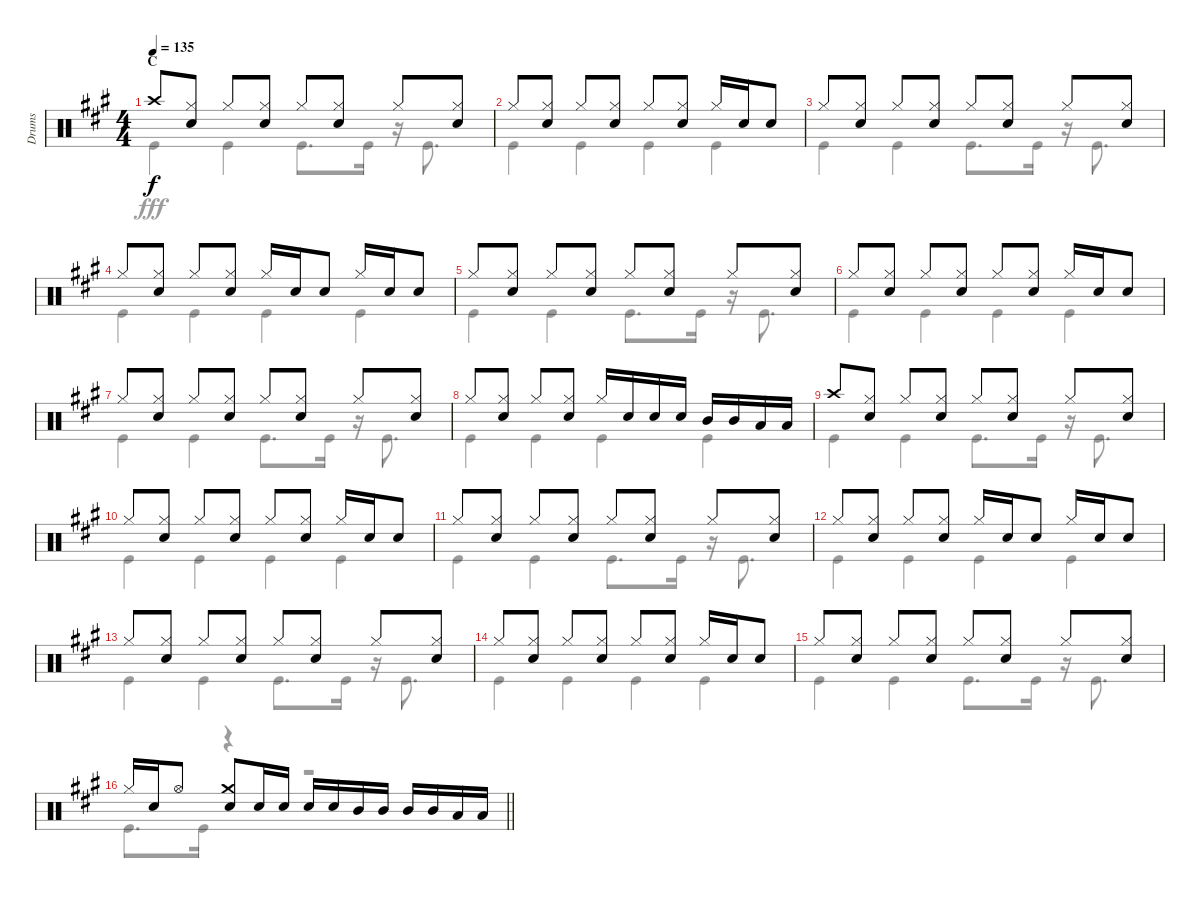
\track ("Drums" "Drums") {instrument percussion}
\staff {score}
\articulation defaults
\voice
\ts (4 4)
\section ("" "C")
\tempo 135
\clef neutral
\ks a "Crash high (hit)".8{dy f}
("Hi-Hat (closed)" "Snare (hit) 2").8 "Hi-Hat (closed)".8 ("Hi-Hat (closed)" "Snare (hit) 2").8 "Hi-Hat (closed)".8 ("Hi-Hat (closed)" "Snare (hit) 2").8 "Hi-Hat (closed)".8 ("Hi-Hat (closed)" "Snare (hit) 2").8 |
"Hi-Hat (closed)".8 ("Hi-Hat (closed)" "Snare (hit) 2").8 "Hi-Hat (closed)".8 ("Hi-Hat (closed)" "Snare (hit) 2").8 "Hi-Hat (closed)".8 ("Hi-Hat (closed)" "Snare (hit) 2").8 "Hi-Hat (closed)".16 "Snare (hit) 2".16 "Snare (hit) 2".8 |
"Hi-Hat (closed)".8 ("Hi-Hat (closed)" "Snare (hit) 2").8 "Hi-Hat (closed)".8 ("Hi-Hat (closed)" "Snare (hit) 2").8 "Hi-Hat (closed)".8 ("Hi-Hat (closed)" "Snare (hit) 2").8 "Hi-Hat (closed)".8 ("Hi-Hat (closed)" "Snare (hit) 2").8 |
"Hi-Hat (closed)".8 ("Hi-Hat (closed)" "Snare (hit) 2").8 "Hi-Hat (closed)".8 ("Hi-Hat (closed)" "Snare (hit) 2").8 "Hi-Hat (closed)".16 "Snare (hit) 2".16 "Snare (hit) 2".8 "Hi-Hat (closed)".16 "Snare (hit) 2".16 "Snare (hit) 2".8 |
"Hi-Hat (closed)".8 ("Hi-Hat (closed)" "Snare (hit) 2").8 "Hi-Hat (closed)".8 ("Hi-Hat (closed)" "Snare (hit) 2").8 "Hi-Hat (closed)".8 ("Hi-Hat (closed)" "Snare (hit) 2").8 "Hi-Hat (closed)".8 ("Hi-Hat (closed)" "Snare (hit) 2").8 |
"Hi-Hat (closed)".8 ("Hi-Hat (closed)" "Snare (hit) 2").8 "Hi-Hat (closed)".8 ("Hi-Hat (closed)" "Snare (hit) 2").8 "Hi-Hat (closed)".8 ("Hi-Hat (closed)" "Snare (hit) 2").8 "Hi-Hat (closed)".16 "Snare (hit) 2".16 "Snare (hit) 2".8 |
"Hi-Hat (closed)".8 ("Hi-Hat (closed)" "Snare (hit) 2").8 "Hi-Hat (closed)".8 ("Hi-Hat (closed)" "Snare (hit) 2").8 "Hi-Hat (closed)".8 ("Hi-Hat (closed)" "Snare (hit) 2").8 "Hi-Hat (closed)".8 ("Hi-Hat (closed)" "Snare (hit) 2").8 |
"Hi-Hat (closed)".8 ("Hi-Hat (closed)" "Snare (hit) 2").8 "Hi-Hat (closed)".8 ("Hi-Hat (closed)" "Snare (hit) 2").8 "Hi-Hat (closed)".16 "Snare (hit) 2".16 "Snare (hit) 2".16 "Snare (hit) 2".16 "Mid Tom (hit)".16 "Mid Tom (hit)".16 "Low Tom (hit)".16 "Low Tom (hit)".16 |
"Crash high (hit)".8 ("Hi-Hat (closed)" "Snare (hit) 2").8 "Hi-Hat (closed)".8 ("Hi-Hat (closed)" "Snare (hit) 2").8 "Hi-Hat (closed)".8 ("Hi-Hat (closed)" "Snare (hit) 2").8 "Hi-Hat (closed)".8 ("Hi-Hat (closed)" "Snare (hit) 2").8 |
"Hi-Hat (closed)".8 ("Hi-Hat (closed)" "Snare (hit) 2").8 "Hi-Hat (closed)".8 ("Hi-Hat (closed)" "Snare (hit) 2").8 "Hi-Hat (closed)".8 ("Hi-Hat (closed)" "Snare (hit) 2").8 "Hi-Hat (closed)".16 "Snare (hit) 2".16 "Snare (hit) 2".8 |
"Hi-Hat (closed)".8 ("Hi-Hat (closed)" "Snare (hit) 2").8 "Hi-Hat (closed)".8 ("Hi-Hat (closed)" "Snare (hit) 2").8 "Hi-Hat (closed)".8 ("Hi-Hat (closed)" "Snare (hit) 2").8 "Hi-Hat (closed)".8 ("Hi-Hat (closed)" "Snare (hit) 2").8 |
"Hi-Hat (closed)".8 ("Hi-Hat (closed)" "Snare (hit) 2").8 "Hi-Hat (closed)".8 ("Hi-Hat (closed)" "Snare (hit) 2").8 "Hi-Hat (closed)".16 "Snare (hit) 2".16 "Snare (hit) 2".8 "Hi-Hat (closed)".16 "Snare (hit) 2".16 "Snare (hit) 2".8 |
"Hi-Hat (closed)".8 ("Hi-Hat (closed)" "Snare (hit) 2").8 "Hi-Hat (closed)".8 ("Hi-Hat (closed)" "Snare (hit) 2").8 "Hi-Hat (closed)".8 ("Hi-Hat (closed)" "Snare (hit) 2").8 "Hi-Hat (closed)".8 ("Hi-Hat (closed)" "Snare (hit) 2").8 |
"Hi-Hat (closed)".8 ("Hi-Hat (closed)" "Snare (hit) 2").8 "Hi-Hat (closed)".8 ("Hi-Hat (closed)" "Snare (hit) 2").8 "Hi-Hat (closed)".8 ("Hi-Hat (closed)" "Snare (hit) 2").8 "Hi-Hat (closed)".16 "Snare (hit) 2".16 "Snare (hit) 2".8 |
"Hi-Hat (closed)".8 ("Hi-Hat (closed)" "Snare (hit) 2").8 "Hi-Hat (closed)".8 ("Hi-Hat (closed)" "Snare (hit) 2").8 "Hi-Hat (closed)".8 ("Hi-Hat (closed)" "Snare (hit) 2").8 "Hi-Hat (closed)".8 ("Hi-Hat (closed)" "Snare (hit) 2").8 |
\barLineRight lightlight "Hi-Hat (closed)".16 "Snare (hit) 2".16 "Hi-Hat (open)".8
("Crash medium (hit)" "Snare (hit) 2").8 "Snare (hit) 2".16 "Snare (hit) 2".16 "Snare (hit) 2".16 "Snare (hit) 2".16 "Mid Tom (hit)".16 "Mid Tom (hit)".16 "Mid Tom (hit)".16 "Mid Tom (hit)".16 "Low Tom (hit)".16 "Low Tom (hit)".16
\voice
\clef neutral
\ottava regular
\simile none
\ks a "Kick (hit)".4{dy fff} "Kick (hit)".4 "Kick (hit)".8{d} "Kick (hit)".16
r.16 "Kick (hit)".8{d} |
"Kick (hit)".4 "Kick (hit)".4 "Kick (hit)".4 "Kick (hit)".4 |
"Kick (hit)".4 "Kick (hit)".4 "Kick (hit)".8{d} "Kick (hit)".16 r.16 "Kick (hit)".8{d} |
"Kick (hit)".4 "Kick (hit)".4 "Kick (hit)".4 "Kick (hit)".4 |
"Kick (hit)".4 "Kick (hit)".4 "Kick (hit)".8{d} "Kick (hit)".16 r.16 "Kick (hit)".8{d} |
"Kick (hit)".4 "Kick (hit)".4 "Kick (hit)".4 "Kick (hit)".4 |
"Kick (hit)".4 "Kick (hit)".4 "Kick (hit)".8{d} "Kick (hit)".16 r.16 "Kick (hit)".8{d} |
"Kick (hit)".4 "Kick (hit)".4 "Kick (hit)".4 "Kick (hit)".4 |
"Kick (hit)".4 "Kick (hit)".4 "Kick (hit)".8{d} "Kick (hit)".16 r.16 "Kick (hit)".8{d} |
"Kick (hit)".4 "Kick (hit)".4 "Kick (hit)".4 "Kick (hit)".4 |
"Kick (hit)".4 "Kick (hit)".4 "Kick (hit)".8{d} "Kick (hit)".16 r.16 "Kick (hit)".8{d} |
"Kick (hit)".4 "Kick (hit)".4 "Kick (hit)".4 "Kick (hit)".4 |
"Kick (hit)".4 "Kick (hit)".4 "Kick (hit)".8{d} "Kick (hit)".16 r.16 "Kick (hit)".8{d} |
"Kick (hit)".4 "Kick (hit)".4 "Kick (hit)".4 "Kick (hit)".4 |
"Kick (hit)".4 "Kick (hit)".4 "Kick (hit)".8{d} "Kick (hit)".16 r.16 "Kick (hit)".8{d} |
\barLineRight lightlight "Kick (hit)".8{d} "Kick (hit)".16
r.4 r.2
